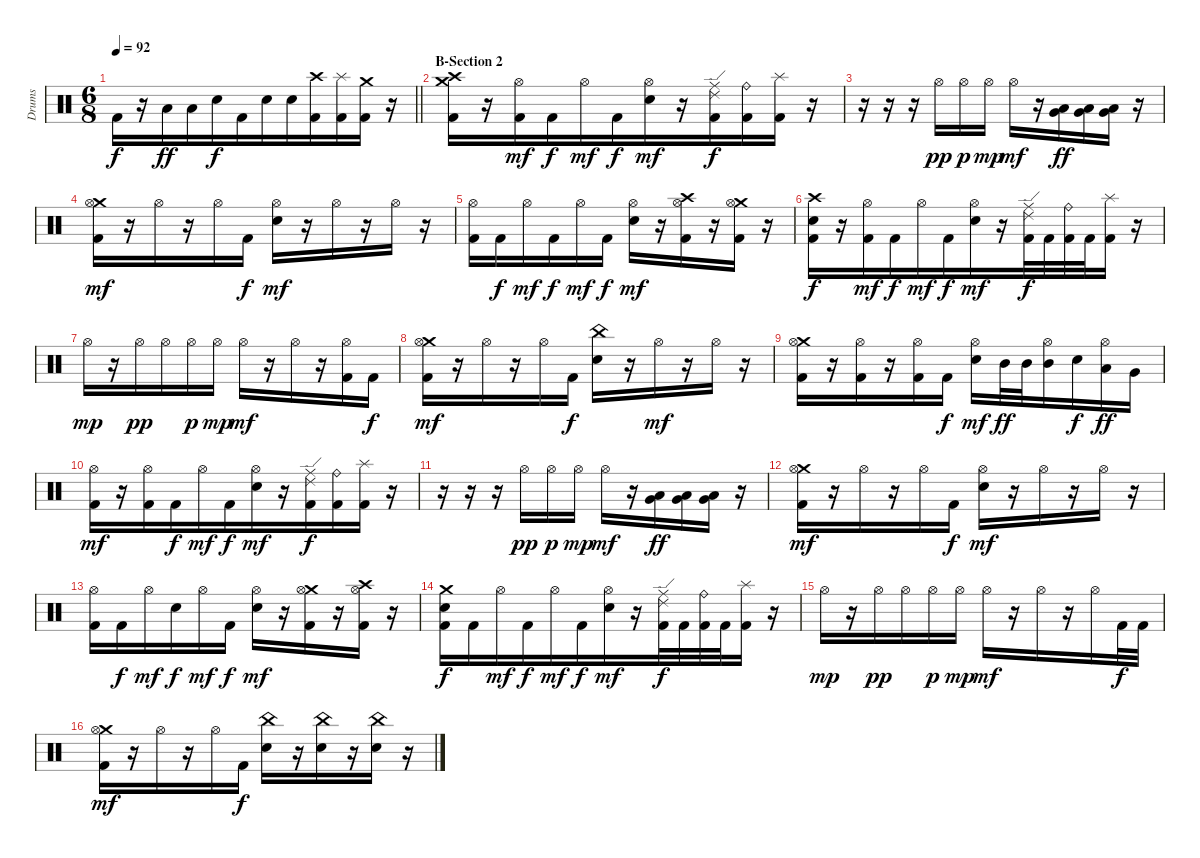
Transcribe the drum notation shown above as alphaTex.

\track ("Drums" "Drums") {instrument percussion}
\staff {score}
\articulation defaults
\ts (6 8)
\tempo 92
\clef neutral
\barLineRight lightlight
\ks c "Kick (hit) 2".16{dy f}
r.16 "Low Floor Tom (hit)".16{dy ff} "Low Floor Tom (hit)".16 "Snare (hit) 2".16{dy f} "Kick (hit) 2".16{beam merge} "Snare (hit) 2".16 "Snare (hit) 2".16{beam merge} ("Crash high (hit)" "Kick (hit) 2").16 ("Splash (hit)" "Kick (hit) 2").16 ("Crash medium (hit)" "Kick (hit) 2").16 r.16 |
\section ("" "B-Section 2")
("Crash medium (hit)" "Crash high (hit)" "Kick (hit) 2").16{beam merge} r.16 ("Hi-Hat (open)" "Kick (hit) 2").16{dy mf} "Kick (hit) 2".16{dy f beam merge} "Hi-Hat (open)".16{dy mf} "Kick (hit) 2".16{dy f beam merge} ("Hi-Hat (open)" "Snare (hit) 2").16{dy mf} r.16{beam merge} ("Ride (edge) 2" "Ride (middle)" "Kick (hit) 2").16{dy f beam merge} ("Ride (bell)" "Kick (hit) 2").16{beam merge} ("Splash (hit)" "Kick (hit) 2").16{beam merge} r.16 |
r.16 r.16{beam merge} r.16 "Hi-Hat (open)".16{dy pp beam merge} "Hi-Hat (open)".16{dy p} "Hi-Hat (open)".16{dy mp} "Hi-Hat (open)".16{dy mf} r.16{beam merge} ("Very Low Tom (hit)" "Low Floor Tom (hit)").16{dy ff} ("Very Low Tom (hit)" "Low Floor Tom (hit)").16 ("Very Low Tom (hit)" "Low Floor Tom (hit)").16{beam merge} r.16 |
("Crash medium (hit)" "Hi-Hat (open)" "Kick (hit) 2").16{dy mf beam merge} r.16 "Hi-Hat (open)".16{beam merge} r.16 "Hi-Hat (open)".16{beam merge} "Kick (hit) 2".16{dy f} ("Hi-Hat (open)" "Snare (hit) 2").16{dy mf beam merge} r.16 "Hi-Hat (open)".16{beam merge} r.16 "Hi-Hat (open)".16 r.16 |
("Hi-Hat (open)" "Kick (hit) 2").16{beam merge} "Kick (hit) 2".16{dy f} "Hi-Hat (open)".16{dy mf beam merge} "Kick (hit) 2".16{dy f} "Hi-Hat (open)".16{dy mf beam merge} "Kick (hit) 2".16{dy f} ("Hi-Hat (open)" "Snare (hit) 2").16{dy mf beam merge} r.16 ("Crash high (hit)" "Hi-Hat (open)" "Kick (hit) 2").16{beam merge} r.16 ("Crash medium (hit)" "Hi-Hat (open)" "Kick (hit) 2").16 r.16 |
("Crash high (hit)" "Snare (hit) 2" "Kick (hit) 2").16{dy f beam merge} r.16 ("Hi-Hat (open)" "Kick (hit) 2").16{dy mf} "Kick (hit) 2".16{dy f beam merge} "Hi-Hat (open)".16{dy mf} "Kick (hit) 2".16{dy f beam merge} ("Hi-Hat (open)" "Snare (hit) 2").16{dy mf} r.16{beam merge} ("Ride (edge) 2" "Ride (middle)" "Kick (hit) 2").32{dy f} "Kick (hit) 2".32{beam merge} ("Ride (bell)" "Kick (hit) 2").32 "Kick (hit) 2".32{beam merge} ("Splash (hit)" "Kick (hit) 2").16 r.16 |
"Hi-Hat (open)".16{dy mp} r.16{beam merge} "Hi-Hat (open)".16{dy pp} "Hi-Hat (open)".16{beam merge} "Hi-Hat (open)".16{dy p} "Hi-Hat (open)".16{dy mp} "Hi-Hat (open)".16{dy mf} r.16{beam merge} "Hi-Hat (open)".16 r.16 ("Hi-Hat (open)" "Kick (hit) 2").16{beam merge} "Kick (hit) 2".16{dy f} |
("Crash medium (hit)" "Hi-Hat (open)" "Kick (hit) 2").16{dy mf beam merge} r.16 "Hi-Hat (open)".16{beam merge} r.16 "Hi-Hat (open)".16{beam merge} "Kick (hit) 2".16{dy f} ("China (hit)" "Snare (hit) 2").16{beam merge} r.16 "Hi-Hat (open)".16{dy mf beam merge} r.16 "Hi-Hat (open)".16 r.16 |
("Crash medium (hit)" "Hi-Hat (open)" "Kick (hit) 2").16{beam merge} r.16 ("Hi-Hat (open)" "Kick (hit) 2").16{beam merge} r.16 ("Hi-Hat (open)" "Kick (hit) 2").16{beam merge} "Kick (hit) 2".16{dy f} ("Hi-Hat (open)" "Snare (hit) 2").16{dy mf beam merge} "Mid Tom (hit)".32{dy ff beam merge} "Mid Tom (hit)".32 ("Hi-Hat (open)" "Mid Tom (hit)").16{beam merge} "Snare (hit) 2".16{dy f} ("Hi-Hat (open)" "Low Tom (hit)").16{dy ff} "Very Low Tom (hit)".16 |
("Hi-Hat (open)" "Kick (hit) 2").16{dy mf beam merge} r.16 ("Hi-Hat (open)" "Kick (hit) 2").16 "Kick (hit) 2".16{dy f beam merge} "Hi-Hat (open)".16{dy mf} "Kick (hit) 2".16{dy f beam merge} ("Hi-Hat (open)" "Snare (hit) 2").16{dy mf} r.16{beam merge} ("Ride (edge) 2" "Ride (middle)" "Kick (hit) 2").16{dy f beam merge} ("Ride (bell)" "Kick (hit) 2").16{beam merge} ("Splash (hit)" "Kick (hit) 2").16{beam merge} r.16 |
r.16 r.16{beam merge} r.16 "Hi-Hat (open)".16{dy pp beam merge} "Hi-Hat (open)".16{dy p} "Hi-Hat (open)".16{dy mp} "Hi-Hat (open)".16{dy mf} r.16{beam merge} ("Very Low Tom (hit)" "Low Floor Tom (hit)").16{dy ff} ("Very Low Tom (hit)" "Low Floor Tom (hit)").16 ("Very Low Tom (hit)" "Low Floor Tom (hit)").16{beam merge} r.16 |
("Crash medium (hit)" "Hi-Hat (open)" "Kick (hit) 2").16{dy mf beam merge} r.16 "Hi-Hat (open)".16{beam merge} r.16 "Hi-Hat (open)".16{beam merge} "Kick (hit) 2".16{dy f} ("Hi-Hat (open)" "Snare (hit) 2").16{dy mf beam merge} r.16 "Hi-Hat (open)".16{beam merge} r.16 "Hi-Hat (open)".16 r.16 |
("Hi-Hat (open)" "Kick (hit) 2").16{beam merge} "Kick (hit) 2".16{dy f} "Hi-Hat (open)".16{dy mf beam merge} "Snare (hit) 2".16{dy f} "Hi-Hat (open)".16{dy mf beam merge} "Kick (hit) 2".16{dy f} ("Hi-Hat (open)" "Snare (hit) 2").16{dy mf beam merge} r.16 ("Crash medium (hit)" "Hi-Hat (open)" "Kick (hit) 2").16{beam merge} r.16 ("Crash high (hit)" "Hi-Hat (open)" "Kick (hit) 2").16 r.16 |
("Crash medium (hit)" "Snare (hit) 2" "Kick (hit) 2").16{dy f beam merge} "Kick (hit) 2".16 "Hi-Hat (open)".16{dy mf} "Kick (hit) 2".16{dy f beam merge} "Hi-Hat (open)".16{dy mf} "Kick (hit) 2".16{dy f beam merge} ("Hi-Hat (open)" "Snare (hit) 2").16{dy mf} r.16{beam merge} ("Ride (edge) 2" "Ride (middle)" "Kick (hit) 2").32{dy f} "Kick (hit) 2".32{beam merge} ("Ride (bell)" "Kick (hit) 2").32 "Kick (hit) 2".32{beam merge} ("Splash (hit)" "Kick (hit) 2").16 r.16 |
"Hi-Hat (open)".16{dy mp} r.16{beam merge} "Hi-Hat (open)".16{dy pp} "Hi-Hat (open)".16{beam merge} "Hi-Hat (open)".16{dy p} "Hi-Hat (open)".16{dy mp} "Hi-Hat (open)".16{dy mf} r.16{beam merge} "Hi-Hat (open)".16 r.16 "Hi-Hat (open)".16{beam merge} "Kick (hit) 2".32{dy f beam merge} "Kick (hit) 2".32 |
("Crash medium (hit)" "Hi-Hat (open)" "Kick (hit) 2").16{dy mf beam merge} r.16 "Hi-Hat (open)".16{beam merge} r.16 "Hi-Hat (open)".16{beam merge} "Kick (hit) 2".16{dy f} ("China (hit)" "Snare (hit) 2").16{beam merge} r.16 ("China (hit)" "Snare (hit) 2").16{beam merge} r.16 ("China (hit)" "Snare (hit) 2").16 r.16
